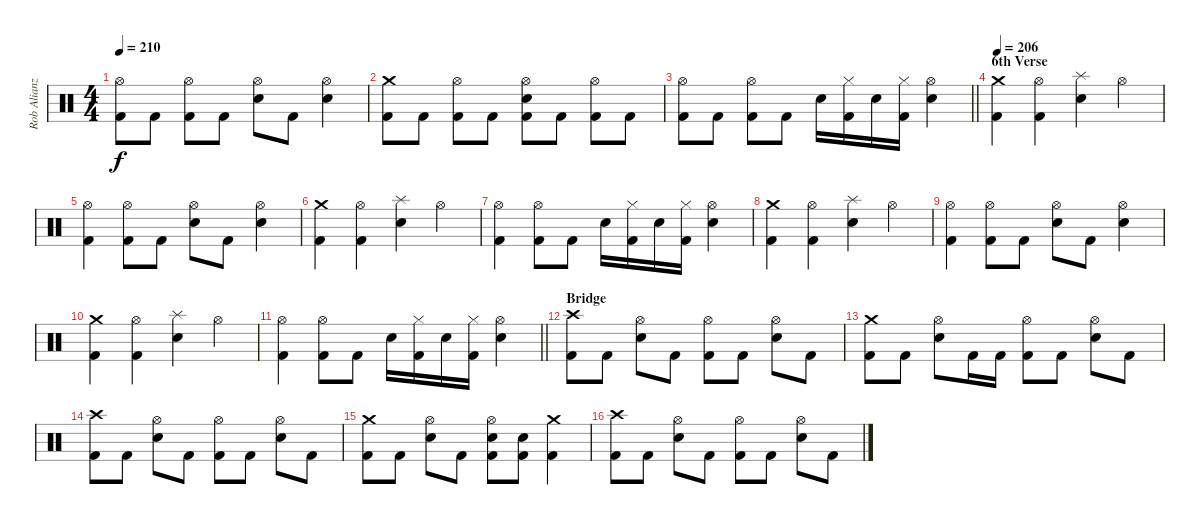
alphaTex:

\track ("Rob Alianz" "Rob Alianz") {instrument percussion}
\staff {score}
\articulation defaults
\ts (4 4)
\tempo 210
\clef neutral
\ks c
("Hi-Hat (open)" "Kick (hit) 2").8{dy f} "Kick (hit) 2".8 ("Hi-Hat (open)" "Kick (hit) 2").8 "Kick (hit) 2".8 ("Hi-Hat (open)" "Electric Snare (hit)").8 "Kick (hit) 2".8 ("Hi-Hat (open)" "Electric Snare (hit)").4 |
("Crash medium (hit)" "Kick (hit) 2").8 "Kick (hit) 2".8 ("Hi-Hat (open)" "Kick (hit) 2").8 "Kick (hit) 2".8 ("Hi-Hat (open)" "Electric Snare (hit)" "Kick (hit) 2").8 "Kick (hit) 2".8 ("Hi-Hat (open)" "Kick (hit) 2").8 "Kick (hit) 2".8 |
\barLineRight lightlight
("Hi-Hat (open)" "Kick (hit) 2").8 "Kick (hit) 2".8 ("Hi-Hat (open)" "Kick (hit) 2").8 "Kick (hit) 2".8 "Electric Snare (hit)".16 ("Hi-Hat (closed)" "Kick (hit) 2").16 "Electric Snare (hit)".16 ("Hi-Hat (closed)" "Kick (hit) 2").16 ("Hi-Hat (open)" "Electric Snare (hit)").4 |
\section ("" "6th Verse")
\tempo 206
("Crash medium (hit)" "Kick (hit) 2").4 ("Hi-Hat (open)" "Kick (hit) 2").4 ("Splash (hit)" "Electric Snare (hit)").4 "Hi-Hat (open)".4 |
("Hi-Hat (open)" "Kick (hit) 2").4 ("Hi-Hat (open)" "Kick (hit) 2").8 "Kick (hit) 2".8 ("Hi-Hat (open)" "Electric Snare (hit)").8 "Kick (hit) 2".8 ("Hi-Hat (open)" "Electric Snare (hit)").4 |
("Crash medium (hit)" "Kick (hit) 2").4 ("Hi-Hat (open)" "Kick (hit) 2").4 ("Splash (hit)" "Electric Snare (hit)").4 "Hi-Hat (open)".4 |
("Hi-Hat (open)" "Kick (hit) 2").4 ("Hi-Hat (open)" "Kick (hit) 2").8 "Kick (hit) 2".8 "Electric Snare (hit)".16 ("Hi-Hat (closed)" "Kick (hit) 2").16 "Electric Snare (hit)".16 ("Hi-Hat (closed)" "Kick (hit) 2").16 ("Hi-Hat (open)" "Electric Snare (hit)").4 |
("Crash medium (hit)" "Kick (hit) 2").4 ("Hi-Hat (open)" "Kick (hit) 2").4 ("Splash (hit)" "Electric Snare (hit)").4 "Hi-Hat (open)".4 |
("Hi-Hat (open)" "Kick (hit) 2").4 ("Hi-Hat (open)" "Kick (hit) 2").8 "Kick (hit) 2".8 ("Hi-Hat (open)" "Electric Snare (hit)").8 "Kick (hit) 2".8 ("Hi-Hat (open)" "Electric Snare (hit)").4 |
("Crash medium (hit)" "Kick (hit) 2").4 ("Hi-Hat (open)" "Kick (hit) 2").4 ("Splash (hit)" "Electric Snare (hit)").4 "Hi-Hat (open)".4 |
\barLineRight lightlight
("Hi-Hat (open)" "Kick (hit) 2").4 ("Hi-Hat (open)" "Kick (hit) 2").8 "Kick (hit) 2".8 "Electric Snare (hit)".16 ("Hi-Hat (closed)" "Kick (hit) 2").16 "Electric Snare (hit)".16 ("Hi-Hat (closed)" "Kick (hit) 2").16 ("Hi-Hat (open)" "Electric Snare (hit)").4 |
\section ("" "Bridge")
("Crash high (hit)" "Kick (hit) 2").8 "Kick (hit) 2".8 ("Hi-Hat (open)" "Electric Snare (hit)").8 "Kick (hit) 2".8 ("Hi-Hat (open)" "Kick (hit) 2").8 "Kick (hit) 2".8 ("Hi-Hat (open)" "Electric Snare (hit)").8 "Kick (hit) 2".8 |
("Crash medium (hit)" "Kick (hit) 2").8 "Kick (hit) 2".8 ("Hi-Hat (open)" "Electric Snare (hit)").8 "Kick (hit) 2".16 "Kick (hit) 2".16 ("Hi-Hat (open)" "Kick (hit) 2").8 "Kick (hit) 2".8 ("Hi-Hat (open)" "Electric Snare (hit)").8 "Kick (hit) 2".8 |
("Crash high (hit)" "Kick (hit) 2").8 "Kick (hit) 2".8 ("Hi-Hat (open)" "Electric Snare (hit)").8 "Kick (hit) 2".8 ("Hi-Hat (open)" "Kick (hit) 2").8 "Kick (hit) 2".8 ("Hi-Hat (open)" "Electric Snare (hit)").8 "Kick (hit) 2".8 |
("Crash medium (hit)" "Kick (hit) 2").8 "Kick (hit) 2".8 ("Hi-Hat (open)" "Electric Snare (hit)").8 "Kick (hit) 2".8 ("Hi-Hat (open)" "Electric Snare (hit)" "Kick (hit) 2").8 ("Electric Snare (hit)" "Kick (hit) 2").8 ("Crash medium (hit)" "Kick (hit) 2").4 |
("Crash high (hit)" "Kick (hit) 2").8 "Kick (hit) 2".8 ("Hi-Hat (open)" "Electric Snare (hit)").8 "Kick (hit) 2".8 ("Hi-Hat (open)" "Kick (hit) 2").8 "Kick (hit) 2".8 ("Hi-Hat (open)" "Electric Snare (hit)").8 "Kick (hit) 2".8
